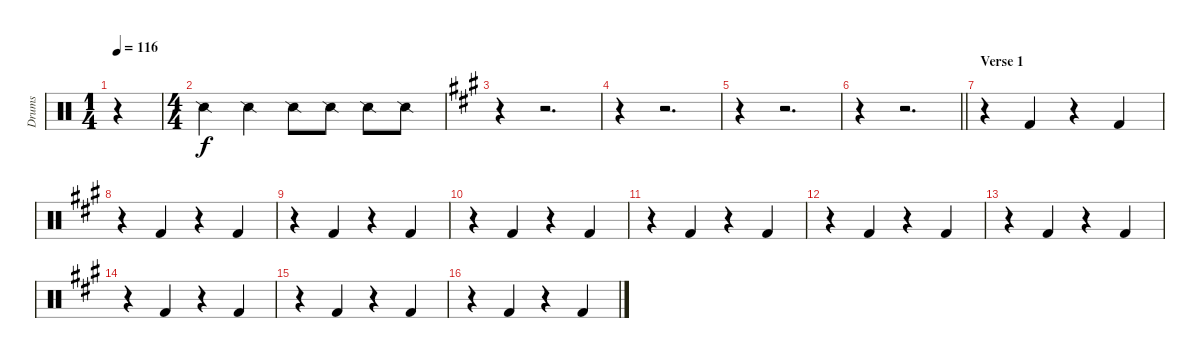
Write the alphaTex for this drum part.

\track ("Drums" "Drums") {instrument percussion}
\staff {score}
\articulation defaults
\voice
\ts (1 4)
\tempo 116
\clef neutral
\ks c
r.4{dy f} |
\ts (4 4)
"Snare (side stick) 2".4 "Snare (side stick) 2".4 "Snare (side stick) 2".8 "Snare (side stick) 2".8 "Snare (side stick) 2".8 "Snare (side stick) 2".8 |
\ks a
r.4 r.2{d} |
r.4 r.2{d} |
r.4 r.2{d} |
\barLineRight lightlight
r.4 r.2{d} |
\section ("" "Verse 1")
r.4 "Kick (hit) 2".4 r.4 "Kick (hit) 2".4 |
r.4 "Kick (hit) 2".4 r.4 "Kick (hit) 2".4 |
r.4 "Kick (hit) 2".4 r.4 "Kick (hit) 2".4 |
r.4 "Kick (hit) 2".4 r.4 "Kick (hit) 2".4 |
r.4 "Kick (hit) 2".4 r.4 "Kick (hit) 2".4 |
r.4 "Kick (hit) 2".4 r.4 "Kick (hit) 2".4 |
r.4 "Kick (hit) 2".4 r.4 "Kick (hit) 2".4 |
r.4 "Kick (hit) 2".4 r.4 "Kick (hit) 2".4 |
r.4 "Kick (hit) 2".4 r.4 "Kick (hit) 2".4 |
r.4 "Kick (hit) 2".4 r.4 "Kick (hit) 2".4
\voice
\clef neutral
\ottava regular
\simile none
\ks c
r.4{dy f} |
|
\ks a
|
|
|
\barLineRight lightlight
|
|
|
|
|
|
|
|
|
|
